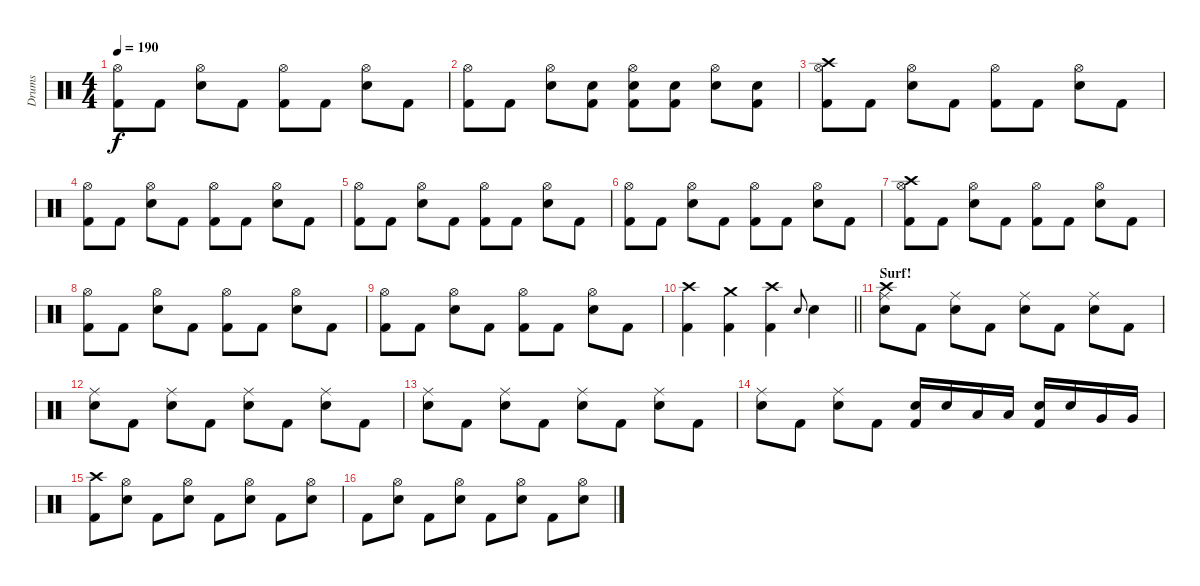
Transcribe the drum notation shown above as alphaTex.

\track ("Drums" "Drums") {instrument percussion}
\staff {score}
\articulation defaults
\ts (4 4)
\tempo 190
\clef neutral
\ks c
("Hi-Hat (open)" "Kick (hit) 2").8{dy f} "Kick (hit) 2".8 ("Hi-Hat (open)" "Snare (hit) 2").8 "Kick (hit) 2".8 ("Hi-Hat (open)" "Kick (hit) 2").8 "Kick (hit) 2".8 ("Hi-Hat (open)" "Snare (hit) 2").8 "Kick (hit) 2".8 |
("Hi-Hat (open)" "Kick (hit) 2").8 "Kick (hit) 2".8 ("Hi-Hat (open)" "Snare (hit) 2").8 ("Snare (hit) 2" "Kick (hit) 2").8 ("Hi-Hat (open)" "Snare (hit) 2" "Kick (hit) 2").8 ("Snare (hit) 2" "Kick (hit) 2").8 ("Hi-Hat (open)" "Snare (hit) 2").8 ("Snare (hit) 2" "Kick (hit) 2").8 |
("Crash high (hit)" "Hi-Hat (open)" "Kick (hit) 2").8 "Kick (hit) 2".8 ("Hi-Hat (open)" "Snare (hit) 2").8 "Kick (hit) 2".8 ("Hi-Hat (open)" "Kick (hit) 2").8 "Kick (hit) 2".8 ("Hi-Hat (open)" "Snare (hit) 2").8 "Kick (hit) 2".8 |
("Hi-Hat (open)" "Kick (hit) 2").8 "Kick (hit) 2".8 ("Hi-Hat (open)" "Snare (hit) 2").8 "Kick (hit) 2".8 ("Hi-Hat (open)" "Kick (hit) 2").8 "Kick (hit) 2".8 ("Hi-Hat (open)" "Snare (hit) 2").8 "Kick (hit) 2".8 |
("Hi-Hat (open)" "Kick (hit) 2").8 "Kick (hit) 2".8 ("Hi-Hat (open)" "Snare (hit) 2").8 "Kick (hit) 2".8 ("Hi-Hat (open)" "Kick (hit) 2").8 "Kick (hit) 2".8 ("Hi-Hat (open)" "Snare (hit) 2").8 "Kick (hit) 2".8 |
("Hi-Hat (open)" "Kick (hit) 2").8 "Kick (hit) 2".8 ("Hi-Hat (open)" "Snare (hit) 2").8 "Kick (hit) 2".8 ("Hi-Hat (open)" "Kick (hit) 2").8 "Kick (hit) 2".8 ("Hi-Hat (open)" "Snare (hit) 2").8 "Kick (hit) 2".8 |
("Crash high (hit)" "Hi-Hat (open)" "Kick (hit) 2").8 "Kick (hit) 2".8 ("Hi-Hat (open)" "Snare (hit) 2").8 "Kick (hit) 2".8 ("Hi-Hat (open)" "Kick (hit) 2").8 "Kick (hit) 2".8 ("Hi-Hat (open)" "Snare (hit) 2").8 "Kick (hit) 2".8 |
("Hi-Hat (open)" "Kick (hit) 2").8 "Kick (hit) 2".8 ("Hi-Hat (open)" "Snare (hit) 2").8 "Kick (hit) 2".8 ("Hi-Hat (open)" "Kick (hit) 2").8 "Kick (hit) 2".8 ("Hi-Hat (open)" "Snare (hit) 2").8 "Kick (hit) 2".8 |
("Hi-Hat (open)" "Kick (hit) 2").8 "Kick (hit) 2".8 ("Hi-Hat (open)" "Snare (hit) 2").8 "Kick (hit) 2".8 ("Hi-Hat (open)" "Kick (hit) 2").8 "Kick (hit) 2".8 ("Hi-Hat (open)" "Snare (hit) 2").8 "Kick (hit) 2".8 |
\barLineRight lightlight
("Crash high (hit)" "Kick (hit) 2").4 ("Crash medium (hit)" "Kick (hit) 2").4 ("Crash high (hit)" "Kick (hit) 2").4 "Snare (hit) 2".8{gr onbeat} "Snare (hit) 2".4 |
\section ("" "Surf!")
("Crash high (hit)" "Ride (middle)" "Snare (hit) 2").8 "Kick (hit) 2".8 ("Ride (middle)" "Snare (hit) 2").8 "Kick (hit) 2".8 ("Ride (middle)" "Snare (hit) 2").8 "Kick (hit) 2".8 ("Ride (middle)" "Snare (hit) 2").8 "Kick (hit) 2".8 |
("Ride (middle)" "Snare (hit) 2").8 "Kick (hit) 2".8 ("Ride (middle)" "Snare (hit) 2").8 "Kick (hit) 2".8 ("Ride (middle)" "Snare (hit) 2").8 "Kick (hit) 2".8 ("Ride (middle)" "Snare (hit) 2").8 "Kick (hit) 2".8 |
("Ride (middle)" "Snare (hit) 2").8 "Kick (hit) 2".8 ("Ride (middle)" "Snare (hit) 2").8 "Kick (hit) 2".8 ("Ride (middle)" "Snare (hit) 2").8 "Kick (hit) 2".8 ("Ride (middle)" "Snare (hit) 2").8 "Kick (hit) 2".8 |
("Ride (middle)" "Snare (hit) 2").8 "Kick (hit) 2".8 ("Ride (middle)" "Snare (hit) 2").8 "Kick (hit) 2".8 ("Snare (hit) 2" "Kick (hit) 2").16 "Snare (hit) 2".16 "Low Tom (hit)".16 "Low Tom (hit)".16 ("Snare (hit) 2" "Kick (hit) 2").16 "Snare (hit) 2".16 "Very Low Tom (hit)".16 "Very Low Tom (hit)".16 |
("Crash high (hit)" "Kick (hit) 2").8 ("Hi-Hat (open)" "Snare (hit) 2").8 "Kick (hit) 2".8 ("Hi-Hat (open)" "Snare (hit) 2").8 "Kick (hit) 2".8 ("Hi-Hat (open)" "Snare (hit) 2").8 "Kick (hit) 2".8 ("Hi-Hat (open)" "Snare (hit) 2").8 |
"Kick (hit) 2".8 ("Hi-Hat (open)" "Snare (hit) 2").8 "Kick (hit) 2".8 ("Hi-Hat (open)" "Snare (hit) 2").8 "Kick (hit) 2".8 ("Hi-Hat (open)" "Snare (hit) 2").8 "Kick (hit) 2".8 ("Hi-Hat (open)" "Snare (hit) 2").8
